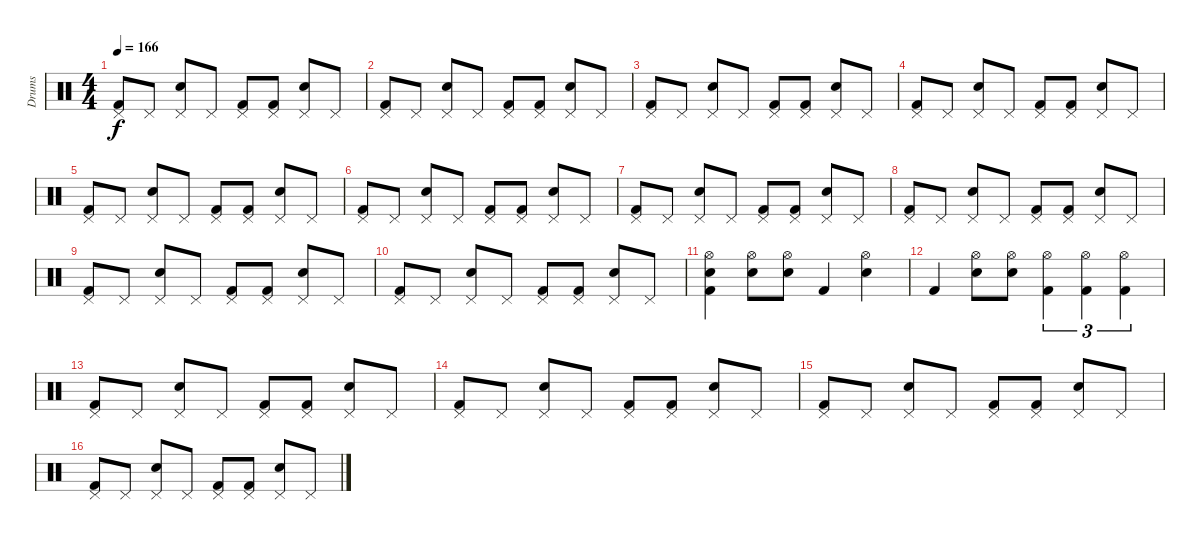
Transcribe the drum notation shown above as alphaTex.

\track ("Drums" "Drums") {instrument percussion}
\staff {score}
\articulation defaults
\ts (4 4)
\tempo 166
\clef neutral
\ks c
("Pedal Hi-Hat (hit)" "Kick (hit) 2").8{dy f} "Pedal Hi-Hat (hit)".8 ("Electric Snare (hit)" "Pedal Hi-Hat (hit)").8 "Pedal Hi-Hat (hit)".8 ("Pedal Hi-Hat (hit)" "Kick (hit) 2").8 ("Pedal Hi-Hat (hit)" "Kick (hit) 2").8 ("Electric Snare (hit)" "Pedal Hi-Hat (hit)").8 "Pedal Hi-Hat (hit)".8 |
("Pedal Hi-Hat (hit)" "Kick (hit) 2").8 "Pedal Hi-Hat (hit)".8 ("Electric Snare (hit)" "Pedal Hi-Hat (hit)").8 "Pedal Hi-Hat (hit)".8 ("Pedal Hi-Hat (hit)" "Kick (hit) 2").8 ("Pedal Hi-Hat (hit)" "Kick (hit) 2").8 ("Electric Snare (hit)" "Pedal Hi-Hat (hit)").8 "Pedal Hi-Hat (hit)".8 |
("Pedal Hi-Hat (hit)" "Kick (hit) 2").8 "Pedal Hi-Hat (hit)".8 ("Electric Snare (hit)" "Pedal Hi-Hat (hit)").8 "Pedal Hi-Hat (hit)".8 ("Pedal Hi-Hat (hit)" "Kick (hit) 2").8 ("Pedal Hi-Hat (hit)" "Kick (hit) 2").8 ("Electric Snare (hit)" "Pedal Hi-Hat (hit)").8 "Pedal Hi-Hat (hit)".8 |
("Pedal Hi-Hat (hit)" "Kick (hit) 2").8 "Pedal Hi-Hat (hit)".8 ("Electric Snare (hit)" "Pedal Hi-Hat (hit)").8 "Pedal Hi-Hat (hit)".8 ("Pedal Hi-Hat (hit)" "Kick (hit) 2").8 ("Pedal Hi-Hat (hit)" "Kick (hit) 2").8 ("Electric Snare (hit)" "Pedal Hi-Hat (hit)").8 "Pedal Hi-Hat (hit)".8 |
("Pedal Hi-Hat (hit)" "Kick (hit) 2").8 "Pedal Hi-Hat (hit)".8 ("Electric Snare (hit)" "Pedal Hi-Hat (hit)").8 "Pedal Hi-Hat (hit)".8 ("Pedal Hi-Hat (hit)" "Kick (hit) 2").8 ("Pedal Hi-Hat (hit)" "Kick (hit) 2").8 ("Electric Snare (hit)" "Pedal Hi-Hat (hit)").8 "Pedal Hi-Hat (hit)".8 |
("Pedal Hi-Hat (hit)" "Kick (hit) 2").8 "Pedal Hi-Hat (hit)".8 ("Electric Snare (hit)" "Pedal Hi-Hat (hit)").8 "Pedal Hi-Hat (hit)".8 ("Pedal Hi-Hat (hit)" "Kick (hit) 2").8 ("Pedal Hi-Hat (hit)" "Kick (hit) 2").8 ("Electric Snare (hit)" "Pedal Hi-Hat (hit)").8 "Pedal Hi-Hat (hit)".8 |
("Pedal Hi-Hat (hit)" "Kick (hit) 2").8 "Pedal Hi-Hat (hit)".8 ("Electric Snare (hit)" "Pedal Hi-Hat (hit)").8 "Pedal Hi-Hat (hit)".8 ("Pedal Hi-Hat (hit)" "Kick (hit) 2").8 ("Pedal Hi-Hat (hit)" "Kick (hit) 2").8 ("Electric Snare (hit)" "Pedal Hi-Hat (hit)").8 "Pedal Hi-Hat (hit)".8 |
("Pedal Hi-Hat (hit)" "Kick (hit) 2").8 "Pedal Hi-Hat (hit)".8 ("Electric Snare (hit)" "Pedal Hi-Hat (hit)").8 "Pedal Hi-Hat (hit)".8 ("Pedal Hi-Hat (hit)" "Kick (hit) 2").8 ("Pedal Hi-Hat (hit)" "Kick (hit) 2").8 ("Electric Snare (hit)" "Pedal Hi-Hat (hit)").8 "Pedal Hi-Hat (hit)".8 |
("Pedal Hi-Hat (hit)" "Kick (hit) 2").8 "Pedal Hi-Hat (hit)".8 ("Electric Snare (hit)" "Pedal Hi-Hat (hit)").8 "Pedal Hi-Hat (hit)".8 ("Pedal Hi-Hat (hit)" "Kick (hit) 2").8 ("Pedal Hi-Hat (hit)" "Kick (hit) 2").8 ("Electric Snare (hit)" "Pedal Hi-Hat (hit)").8 "Pedal Hi-Hat (hit)".8 |
("Pedal Hi-Hat (hit)" "Kick (hit) 2").8 "Pedal Hi-Hat (hit)".8 ("Electric Snare (hit)" "Pedal Hi-Hat (hit)").8 "Pedal Hi-Hat (hit)".8 ("Pedal Hi-Hat (hit)" "Kick (hit) 2").8 ("Pedal Hi-Hat (hit)" "Kick (hit) 2").8 ("Electric Snare (hit)" "Pedal Hi-Hat (hit)").8 "Pedal Hi-Hat (hit)".8 |
("Electric Snare (hit)" "Hi-Hat (open)" "Kick (hit) 2").4 ("Electric Snare (hit)" "Hi-Hat (open)").8 ("Electric Snare (hit)" "Hi-Hat (open)").8 "Kick (hit) 2".4 ("Electric Snare (hit)" "Hi-Hat (open)").4 |
"Kick (hit) 2".4 ("Electric Snare (hit)" "Hi-Hat (open)").8 ("Electric Snare (hit)" "Hi-Hat (open)").8 ("Hi-Hat (open)" "Kick (hit) 2").4{tu (3 2)} ("Hi-Hat (open)" "Kick (hit) 2").4{tu (3 2)} ("Hi-Hat (open)" "Kick (hit) 2").4{tu (3 2)} |
("Pedal Hi-Hat (hit)" "Kick (hit) 2").8 "Pedal Hi-Hat (hit)".8 ("Electric Snare (hit)" "Pedal Hi-Hat (hit)").8 "Pedal Hi-Hat (hit)".8 ("Pedal Hi-Hat (hit)" "Kick (hit) 2").8 ("Pedal Hi-Hat (hit)" "Kick (hit) 2").8 ("Electric Snare (hit)" "Pedal Hi-Hat (hit)").8 "Pedal Hi-Hat (hit)".8 |
("Pedal Hi-Hat (hit)" "Kick (hit) 2").8 "Pedal Hi-Hat (hit)".8 ("Electric Snare (hit)" "Pedal Hi-Hat (hit)").8 "Pedal Hi-Hat (hit)".8 ("Pedal Hi-Hat (hit)" "Kick (hit) 2").8 ("Pedal Hi-Hat (hit)" "Kick (hit) 2").8 ("Electric Snare (hit)" "Pedal Hi-Hat (hit)").8 "Pedal Hi-Hat (hit)".8 |
("Pedal Hi-Hat (hit)" "Kick (hit) 2").8 "Pedal Hi-Hat (hit)".8 ("Electric Snare (hit)" "Pedal Hi-Hat (hit)").8 "Pedal Hi-Hat (hit)".8 ("Pedal Hi-Hat (hit)" "Kick (hit) 2").8 ("Pedal Hi-Hat (hit)" "Kick (hit) 2").8 ("Electric Snare (hit)" "Pedal Hi-Hat (hit)").8 "Pedal Hi-Hat (hit)".8 |
("Pedal Hi-Hat (hit)" "Kick (hit) 2").8 "Pedal Hi-Hat (hit)".8 ("Electric Snare (hit)" "Pedal Hi-Hat (hit)").8 "Pedal Hi-Hat (hit)".8 ("Pedal Hi-Hat (hit)" "Kick (hit) 2").8 ("Pedal Hi-Hat (hit)" "Kick (hit) 2").8 ("Electric Snare (hit)" "Pedal Hi-Hat (hit)").8 "Pedal Hi-Hat (hit)".8
